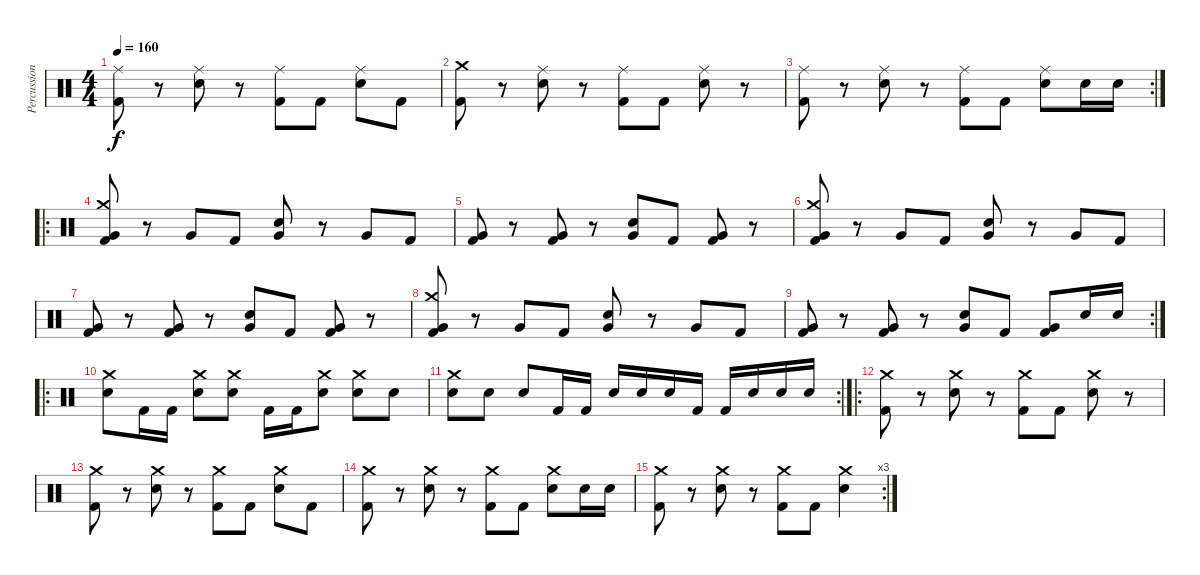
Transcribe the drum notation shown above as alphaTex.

\track ("Percussion" "Percussion") {instrument percussion}
\staff {score}
\articulation defaults
\ts (4 4)
\tempo 160
\clef neutral
\ks c
("Ride (middle)" "Kick (hit) 2").8{dy f} r.8 ("Ride (middle)" "Electric Snare (hit)").8 r.8 ("Ride (middle)" "Kick (hit) 2").8 "Kick (hit) 2".8 ("Ride (middle)" "Electric Snare (hit)").8 "Kick (hit) 2".8 |
("Crash medium (hit)" "Kick (hit) 2").8 r.8 ("Ride (middle)" "Electric Snare (hit)").8 r.8 ("Ride (middle)" "Kick (hit) 2").8 "Kick (hit) 2".8 ("Ride (middle)" "Electric Snare (hit)").8 r.8 |
\rc 2
("Ride (middle)" "Kick (hit) 2").8 r.8 ("Ride (middle)" "Electric Snare (hit)").8 r.8 ("Ride (middle)" "Kick (hit) 2").8 "Kick (hit) 2".8 ("Ride (middle)" "Electric Snare (hit)").8 "Electric Snare (hit)".16 "Electric Snare (hit)".16 |
\ro
("Crash medium (hit)" "Very Low Tom (hit)" "Kick (hit) 2").8 r.8 "Very Low Tom (hit)".8 "Kick (hit) 2".8 ("Very Low Tom (hit)" "Electric Snare (hit)").8 r.8 "Very Low Tom (hit)".8 "Kick (hit) 2".8 |
("Very Low Tom (hit)" "Kick (hit) 2").8 r.8 ("Very Low Tom (hit)" "Kick (hit) 2").8 r.8 ("Very Low Tom (hit)" "Electric Snare (hit)").8 "Kick (hit) 2".8 ("Very Low Tom (hit)" "Kick (hit) 2").8 r.8 |
("Crash medium (hit)" "Very Low Tom (hit)" "Kick (hit) 2").8 r.8 "Very Low Tom (hit)".8 "Kick (hit) 2".8 ("Very Low Tom (hit)" "Electric Snare (hit)").8 r.8 "Very Low Tom (hit)".8 "Kick (hit) 2".8 |
("Very Low Tom (hit)" "Kick (hit) 2").8 r.8 ("Very Low Tom (hit)" "Kick (hit) 2").8 r.8 ("Very Low Tom (hit)" "Electric Snare (hit)").8 "Kick (hit) 2".8 ("Very Low Tom (hit)" "Kick (hit) 2").8 r.8 |
("Crash medium (hit)" "Very Low Tom (hit)" "Kick (hit) 2").8 r.8 "Very Low Tom (hit)".8 "Kick (hit) 2".8 ("Very Low Tom (hit)" "Electric Snare (hit)").8 r.8 "Very Low Tom (hit)".8 "Kick (hit) 2".8 |
\rc 2
("Very Low Tom (hit)" "Kick (hit) 2").8 r.8 ("Very Low Tom (hit)" "Kick (hit) 2").8 r.8 ("Very Low Tom (hit)" "Electric Snare (hit)").8 "Kick (hit) 2".8 ("Very Low Tom (hit)" "Kick (hit) 2").8 "Electric Snare (hit)".16 "Electric Snare (hit)".16 |
\ro
("Crash medium (hit)" "Electric Snare (hit)").8 "Kick (hit) 2".16 "Kick (hit) 2".16 ("Crash medium (hit)" "Electric Snare (hit)").8 ("Crash medium (hit)" "Electric Snare (hit)").8 "Kick (hit) 2".16 "Kick (hit) 2".16 ("Crash medium (hit)" "Electric Snare (hit)").8 ("Crash medium (hit)" "Electric Snare (hit)").8 "Electric Snare (hit)".8 |
\rc 2
("Crash medium (hit)" "Electric Snare (hit)").8 "Electric Snare (hit)".8 "Electric Snare (hit)".8 "Kick (hit) 2".16 "Kick (hit) 2".16 "Electric Snare (hit)".16 "Electric Snare (hit)".16 "Electric Snare (hit)".16 "Kick (hit) 2".16 "Kick (hit) 2".16 "Electric Snare (hit)".16 "Electric Snare (hit)".16 "Electric Snare (hit)".16 |
\ro
("Crash medium (hit)" "Kick (hit) 2").8 r.8 ("Crash medium (hit)" "Electric Snare (hit)").8 r.8 ("Crash medium (hit)" "Kick (hit) 2").8 "Kick (hit) 2".8 ("Crash medium (hit)" "Electric Snare (hit)").8 r.8 |
("Crash medium (hit)" "Kick (hit) 2").8 r.8 ("Crash medium (hit)" "Electric Snare (hit)").8 r.8 ("Crash medium (hit)" "Kick (hit) 2").8 "Kick (hit) 2".8 ("Crash medium (hit)" "Electric Snare (hit)").8 "Kick (hit) 2".8 |
("Crash medium (hit)" "Kick (hit) 2").8 r.8 ("Crash medium (hit)" "Electric Snare (hit)").8 r.8 ("Crash medium (hit)" "Kick (hit) 2").8 "Kick (hit) 2".8 ("Crash medium (hit)" "Electric Snare (hit)").8 "Electric Snare (hit)".16 "Electric Snare (hit)".16 |
\rc 3
("Crash medium (hit)" "Kick (hit) 2").8 r.8 ("Crash medium (hit)" "Electric Snare (hit)").8 r.8 ("Crash medium (hit)" "Kick (hit) 2").8 "Kick (hit) 2".8 ("Crash medium (hit)" "Electric Snare (hit)").4
